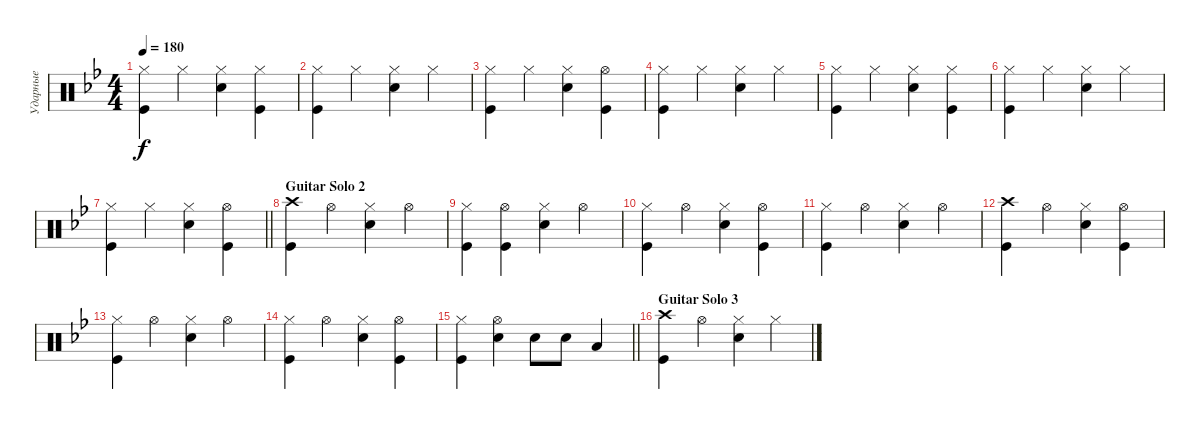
\track ("Ударные" "Ударные") {instrument percussion}
\staff {score}
\articulation defaults
\ts (4 4)
\tempo 180
\clef neutral
\ks gminor
("Hi-Hat (closed)" "Kick (hit)").4{dy f} "Hi-Hat (closed)".4 ("Snare (hit) 2" "Hi-Hat (closed)").4 ("Hi-Hat (closed)" "Kick (hit)").4 |
("Hi-Hat (closed)" "Kick (hit)").4 "Hi-Hat (closed)".4 ("Snare (hit) 2" "Hi-Hat (closed)").4 "Hi-Hat (closed)".4 |
("Hi-Hat (closed)" "Kick (hit)").4 "Hi-Hat (closed)".4 ("Snare (hit) 2" "Hi-Hat (closed)").4 ("Hi-Hat (open)" "Kick (hit)").4 |
("Hi-Hat (closed)" "Kick (hit)").4 "Hi-Hat (closed)".4 ("Snare (hit) 2" "Hi-Hat (closed)").4 "Hi-Hat (closed)".4 |
("Hi-Hat (closed)" "Kick (hit)").4 "Hi-Hat (closed)".4 ("Snare (hit) 2" "Hi-Hat (closed)").4 ("Hi-Hat (closed)" "Kick (hit)").4 |
("Hi-Hat (closed)" "Kick (hit)").4 "Hi-Hat (closed)".4 ("Snare (hit) 2" "Hi-Hat (closed)").4 "Hi-Hat (closed)".4 |
\barLineRight lightlight
("Hi-Hat (closed)" "Kick (hit)").4 "Hi-Hat (closed)".4 ("Snare (hit) 2" "Hi-Hat (closed)").4 ("Hi-Hat (open)" "Kick (hit)").4 |
\section ("" "Guitar Solo 2")
("Crash high (hit)" "Kick (hit)").4 "Hi-Hat (open)".4 ("Snare (hit) 2" "Hi-Hat (closed)").4 "Hi-Hat (open)".4 |
("Hi-Hat (closed)" "Kick (hit)").4 ("Hi-Hat (open)" "Kick (hit)").4 ("Snare (hit) 2" "Hi-Hat (closed)").4 "Hi-Hat (open)".4 |
("Hi-Hat (closed)" "Kick (hit)").4 "Hi-Hat (open)".4 ("Snare (hit) 2" "Hi-Hat (closed)").4 ("Hi-Hat (open)" "Kick (hit)").4 |
("Hi-Hat (closed)" "Kick (hit)").4 "Hi-Hat (open)".4 ("Snare (hit) 2" "Hi-Hat (closed)").4 "Hi-Hat (open)".4 |
("Crash high (hit)" "Kick (hit)").4 "Hi-Hat (open)".4 ("Snare (hit) 2" "Hi-Hat (closed)").4 ("Hi-Hat (open)" "Kick (hit)").4 |
("Hi-Hat (closed)" "Kick (hit)").4 "Hi-Hat (open)".4 ("Snare (hit) 2" "Hi-Hat (closed)").4 "Hi-Hat (open)".4 |
("Hi-Hat (closed)" "Kick (hit)").4 "Hi-Hat (open)".4 ("Snare (hit) 2" "Hi-Hat (closed)").4 ("Hi-Hat (open)" "Kick (hit)").4 |
\barLineRight lightlight
("Hi-Hat (closed)" "Kick (hit)").4 ("Hi-Hat (open)" "Snare (hit) 2").4 "Snare (hit) 2".8 "Snare (hit) 2".8 "Low Tom (hit)".4 |
\section ("" "Guitar Solo 3")
("Kick (hit)" "Crash high (hit)").4 "Hi-Hat (open)".4 ("Hi-Hat (closed)" "Snare (hit) 2").4 "Hi-Hat (closed)".4
